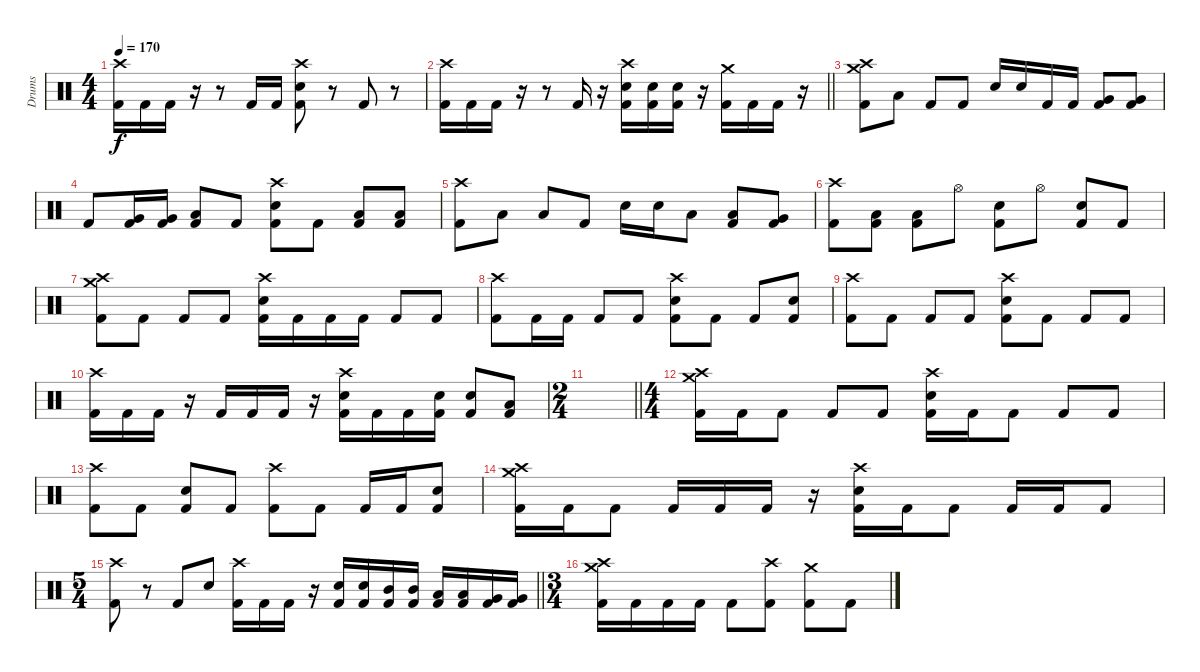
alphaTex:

\track ("Drums" "Drums") {instrument percussion}
\staff
\articulation defaults
\ts (4 4)
\tempo 170
\clef neutral
\ks c
("Crash high (hit)" "Kick (hit) 2").16{dy f} "Kick (hit) 2".16 "Kick (hit) 2".16 r.16 r.8 "Kick (hit) 2".16 "Kick (hit) 2".16 ("Crash high (hit)" "Electric Snare (hit)" "Kick (hit) 2").8 r.8 "Kick (hit) 2".8 r.8 |
\barLineRight lightlight
("Crash high (hit)" "Kick (hit) 2").16 "Kick (hit) 2".16 "Kick (hit) 2".16 r.16 r.8 "Kick (hit) 2".16 r.16 ("Crash high (hit)" "Electric Snare (hit)" "Kick (hit) 2").16 ("Electric Snare (hit)" "Kick (hit) 2").16 ("Electric Snare (hit)" "Kick (hit) 2").16 r.16 ("Crash medium (hit)" "Kick (hit) 2").16 "Kick (hit) 2".16 "Kick (hit) 2".16 r.16 |
("Crash medium (hit)" "Crash high (hit)" "Kick (hit) 2").8 "Low Tom (hit)".8 "Kick (hit) 2".8 "Kick (hit) 2".8 "Electric Snare (hit)".16 "Electric Snare (hit)".16 "Kick (hit) 2".16 "Kick (hit) 2".16 ("Very Low Tom (hit)" "Kick (hit) 2").8 ("Very Low Tom (hit)" "Kick (hit) 2").8 |
"Kick (hit) 2".8 ("Very Low Tom (hit)" "Kick (hit) 2").16 ("Very Low Tom (hit)" "Kick (hit) 2").16 ("Low Floor Tom (hit)" "Kick (hit) 2").8 "Kick (hit) 2".8 ("Crash high (hit)" "Electric Snare (hit)" "Kick (hit) 2").8 "Kick (hit) 2".8 ("Low Floor Tom (hit)" "Kick (hit) 2").8 ("Low Floor Tom (hit)" "Kick (hit) 2").8 |
("Crash high (hit)" "Kick (hit) 2").8 "Low Floor Tom (hit)".8 "Low Floor Tom (hit)".8 "Kick (hit) 2".8 "Electric Snare (hit)".16 "Electric Snare (hit)".16 "Low Tom (hit)".8 ("Low Floor Tom (hit)" "Kick (hit) 2").8 ("Very Low Tom (hit)" "Kick (hit) 2").8 |
("Crash high (hit)" "Kick (hit) 2").8 ("Low Floor Tom (hit)" "Kick (hit) 2").8 ("Low Tom (hit)" "Kick (hit) 2").8 "Hi-Hat (open)".8 ("Electric Snare (hit)" "Kick (hit) 2").8 "Hi-Hat (open)".8 ("Electric Snare (hit)" "Kick (hit) 2").8 "Kick (hit) 2".8 |
("Crash medium (hit)" "Crash high (hit)" "Kick (hit) 2").8 "Kick (hit) 2".8 "Kick (hit) 2".8 "Kick (hit) 2".8 ("Crash high (hit)" "Electric Snare (hit)" "Kick (hit) 2").16 "Kick (hit) 2".16 "Kick (hit) 2".16 "Kick (hit) 2".16 "Kick (hit) 2".8 "Kick (hit) 2".8 |
("Crash high (hit)" "Kick (hit) 2").8 "Kick (hit) 2".16 "Kick (hit) 2".16 "Kick (hit) 2".8 "Kick (hit) 2".8 ("Crash high (hit)" "Electric Snare (hit)" "Kick (hit) 2").8 "Kick (hit) 2".8 "Kick (hit) 2".8 ("Electric Snare (hit)" "Kick (hit) 2").8 |
("Crash high (hit)" "Kick (hit) 2").8 "Kick (hit) 2".8 "Kick (hit) 2".8 "Kick (hit) 2".8 ("Crash high (hit)" "Electric Snare (hit)" "Kick (hit) 2").8 "Kick (hit) 2".8 "Kick (hit) 2".8 "Kick (hit) 2".8 |
("Crash high (hit)" "Kick (hit) 2").16 "Kick (hit) 2".16 "Kick (hit) 2".16 r.16 "Kick (hit) 2".16 "Kick (hit) 2".16 "Kick (hit) 2".16 r.16 ("Crash high (hit)" "Electric Snare (hit)" "Kick (hit) 2").16 "Kick (hit) 2".16 "Kick (hit) 2".16 ("Electric Snare (hit)" "Kick (hit) 2").16 ("Electric Snare (hit)" "Kick (hit) 2").8 ("Low Tom (hit)" "Kick (hit) 2").8 |
\ts (2 4)
\barLineRight lightlight
|
\ts (4 4)
("Crash medium (hit)" "Crash high (hit)" "Kick (hit) 2").16 "Kick (hit) 2".16 "Kick (hit) 2".8 "Kick (hit) 2".8 "Kick (hit) 2".8 ("Crash high (hit)" "Electric Snare (hit)" "Kick (hit) 2").16 "Kick (hit) 2".16 "Kick (hit) 2".8 "Kick (hit) 2".8 "Kick (hit) 2".8 |
("Crash high (hit)" "Kick (hit) 2").8 "Kick (hit) 2".8 ("Electric Snare (hit)" "Kick (hit) 2").8 "Kick (hit) 2".8 ("Crash high (hit)" "Kick (hit) 2").8 "Kick (hit) 2".8 "Kick (hit) 2".16 "Kick (hit) 2".16 ("Electric Snare (hit)" "Kick (hit) 2").8 |
("Crash medium (hit)" "Crash high (hit)" "Kick (hit) 2").16 "Kick (hit) 2".16 "Kick (hit) 2".8 "Kick (hit) 2".16 "Kick (hit) 2".16 "Kick (hit) 2".16 r.16 ("Crash high (hit)" "Electric Snare (hit)" "Kick (hit) 2").16 "Kick (hit) 2".16 "Kick (hit) 2".8 "Kick (hit) 2".16 "Kick (hit) 2".16 "Kick (hit) 2".8 |
\ts (5 4)
\barLineRight lightlight
("Crash high (hit)" "Kick (hit) 2").8 r.8 "Kick (hit) 2".8 "Electric Snare (hit)".8 ("Crash high (hit)" "Kick (hit) 2").16 "Kick (hit) 2".16 "Kick (hit) 2".16 r.16 ("Electric Snare (hit)" "Kick (hit) 2").16 ("Electric Snare (hit)" "Kick (hit) 2").16 ("Mid Tom (hit)" "Kick (hit) 2").16 ("Mid Tom (hit)" "Kick (hit) 2").16 ("Low Tom (hit)" "Kick (hit) 2").16 ("Low Tom (hit)" "Kick (hit) 2").16 ("Very Low Tom (hit)" "Kick (hit) 2").16 ("Very Low Tom (hit)" "Kick (hit) 2").16 |
\ts (3 4)
("Crash medium (hit)" "Crash high (hit)" "Kick (hit) 2").16 "Kick (hit) 2".16 "Kick (hit) 2".16 "Kick (hit) 2".16 "Kick (hit) 2".8 ("Crash high (hit)" "Kick (hit) 2").8 ("Crash medium (hit)" "Kick (hit) 2").8 "Kick (hit) 2".8
